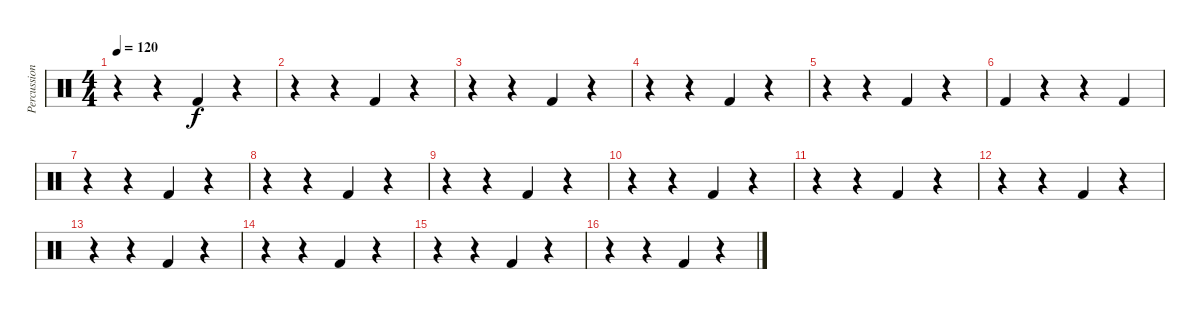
\track ("Percussion II" "Percussion") {instrument percussion}
\staff {score}
\articulation defaults
\ts (4 4)
\tempo 120
\clef neutral
\ks aminor
r.4{dy f} r.4 "Kick (hit) 2".4 r.4 |
r.4 r.4 "Kick (hit) 2".4 r.4 |
r.4 r.4 "Kick (hit) 2".4 r.4 |
r.4 r.4 "Kick (hit) 2".4 r.4 |
r.4 r.4 "Kick (hit) 2".4 r.4 |
"Kick (hit) 2".4 r.4 r.4 "Kick (hit) 2".4 |
r.4 r.4 "Kick (hit) 2".4 r.4 |
r.4 r.4 "Kick (hit) 2".4 r.4 |
r.4 r.4 "Kick (hit) 2".4 r.4 |
r.4 r.4 "Kick (hit) 2".4 r.4 |
r.4 r.4 "Kick (hit) 2".4 r.4 |
r.4 r.4 "Kick (hit) 2".4 r.4 |
r.4 r.4 "Kick (hit) 2".4 r.4 |
r.4 r.4 "Kick (hit) 2".4 r.4 |
r.4 r.4 "Kick (hit) 2".4 r.4 |
r.4 r.4 "Kick (hit) 2".4 r.4
